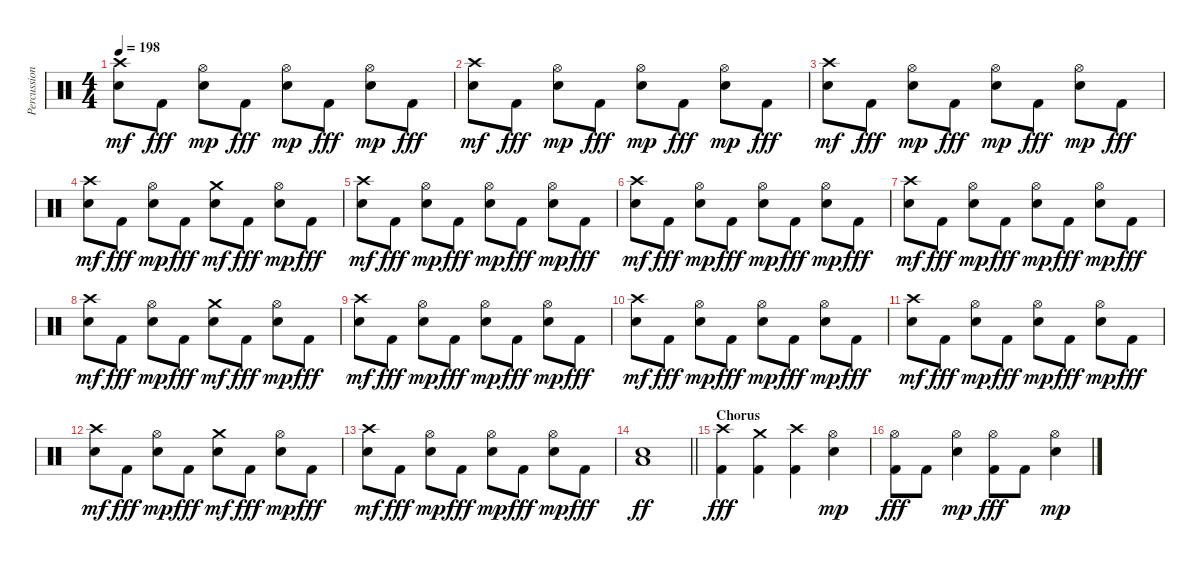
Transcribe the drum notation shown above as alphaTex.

\track ("Percussion" "Percussion") {instrument percussion}
\staff {score}
\articulation defaults
\ts (4 4)
\tempo 198
\clef neutral
\ks c
("Crash high (hit)" "Snare (hit) 2").8{dy mf} "Kick (hit) 2".8{dy fff} ("Hi-Hat (open)" "Snare (hit) 2").8{dy mp} "Kick (hit) 2".8{dy fff} ("Hi-Hat (open)" "Snare (hit) 2").8{dy mp} "Kick (hit) 2".8{dy fff} ("Hi-Hat (open)" "Snare (hit) 2").8{dy mp} "Kick (hit) 2".8{dy fff} |
("Crash high (hit)" "Snare (hit) 2").8{dy mf} "Kick (hit) 2".8{dy fff} ("Hi-Hat (open)" "Snare (hit) 2").8{dy mp} "Kick (hit) 2".8{dy fff} ("Hi-Hat (open)" "Snare (hit) 2").8{dy mp} "Kick (hit) 2".8{dy fff} ("Hi-Hat (open)" "Snare (hit) 2").8{dy mp} "Kick (hit) 2".8{dy fff} |
("Crash high (hit)" "Snare (hit) 2").8{dy mf} "Kick (hit) 2".8{dy fff} ("Hi-Hat (open)" "Snare (hit) 2").8{dy mp} "Kick (hit) 2".8{dy fff} ("Hi-Hat (open)" "Snare (hit) 2").8{dy mp} "Kick (hit) 2".8{dy fff} ("Hi-Hat (open)" "Snare (hit) 2").8{dy mp} "Kick (hit) 2".8{dy fff} |
("Crash high (hit)" "Snare (hit) 2").8{dy mf} "Kick (hit) 2".8{dy fff} ("Hi-Hat (open)" "Snare (hit) 2").8{dy mp} "Kick (hit) 2".8{dy fff} ("Crash medium (hit)" "Snare (hit) 2").8{dy mf} "Kick (hit) 2".8{dy fff} ("Hi-Hat (open)" "Snare (hit) 2").8{dy mp} "Kick (hit) 2".8{dy fff} |
("Crash high (hit)" "Snare (hit) 2").8{dy mf} "Kick (hit) 2".8{dy fff} ("Hi-Hat (open)" "Snare (hit) 2").8{dy mp} "Kick (hit) 2".8{dy fff} ("Hi-Hat (open)" "Snare (hit) 2").8{dy mp} "Kick (hit) 2".8{dy fff} ("Hi-Hat (open)" "Snare (hit) 2").8{dy mp} "Kick (hit) 2".8{dy fff} |
("Crash high (hit)" "Snare (hit) 2").8{dy mf} "Kick (hit) 2".8{dy fff} ("Hi-Hat (open)" "Snare (hit) 2").8{dy mp} "Kick (hit) 2".8{dy fff} ("Hi-Hat (open)" "Snare (hit) 2").8{dy mp} "Kick (hit) 2".8{dy fff} ("Hi-Hat (open)" "Snare (hit) 2").8{dy mp} "Kick (hit) 2".8{dy fff} |
("Crash high (hit)" "Snare (hit) 2").8{dy mf} "Kick (hit) 2".8{dy fff} ("Hi-Hat (open)" "Snare (hit) 2").8{dy mp} "Kick (hit) 2".8{dy fff} ("Hi-Hat (open)" "Snare (hit) 2").8{dy mp} "Kick (hit) 2".8{dy fff} ("Hi-Hat (open)" "Snare (hit) 2").8{dy mp} "Kick (hit) 2".8{dy fff} |
("Crash high (hit)" "Snare (hit) 2").8{dy mf} "Kick (hit) 2".8{dy fff} ("Hi-Hat (open)" "Snare (hit) 2").8{dy mp} "Kick (hit) 2".8{dy fff} ("Crash medium (hit)" "Snare (hit) 2").8{dy mf} "Kick (hit) 2".8{dy fff} ("Hi-Hat (open)" "Snare (hit) 2").8{dy mp} "Kick (hit) 2".8{dy fff} |
("Crash high (hit)" "Snare (hit) 2").8{dy mf} "Kick (hit) 2".8{dy fff} ("Hi-Hat (open)" "Snare (hit) 2").8{dy mp} "Kick (hit) 2".8{dy fff} ("Hi-Hat (open)" "Snare (hit) 2").8{dy mp} "Kick (hit) 2".8{dy fff} ("Hi-Hat (open)" "Snare (hit) 2").8{dy mp} "Kick (hit) 2".8{dy fff} |
("Crash high (hit)" "Snare (hit) 2").8{dy mf} "Kick (hit) 2".8{dy fff} ("Hi-Hat (open)" "Snare (hit) 2").8{dy mp} "Kick (hit) 2".8{dy fff} ("Hi-Hat (open)" "Snare (hit) 2").8{dy mp} "Kick (hit) 2".8{dy fff} ("Hi-Hat (open)" "Snare (hit) 2").8{dy mp} "Kick (hit) 2".8{dy fff} |
("Crash high (hit)" "Snare (hit) 2").8{dy mf} "Kick (hit) 2".8{dy fff} ("Hi-Hat (open)" "Snare (hit) 2").8{dy mp} "Kick (hit) 2".8{dy fff} ("Hi-Hat (open)" "Snare (hit) 2").8{dy mp} "Kick (hit) 2".8{dy fff} ("Hi-Hat (open)" "Snare (hit) 2").8{dy mp} "Kick (hit) 2".8{dy fff} |
("Crash high (hit)" "Snare (hit) 2").8{dy mf} "Kick (hit) 2".8{dy fff} ("Hi-Hat (open)" "Snare (hit) 2").8{dy mp} "Kick (hit) 2".8{dy fff} ("Crash medium (hit)" "Snare (hit) 2").8{dy mf} "Kick (hit) 2".8{dy fff} ("Hi-Hat (open)" "Snare (hit) 2").8{dy mp} "Kick (hit) 2".8{dy fff} |
("Crash high (hit)" "Snare (hit) 2").8{dy mf} "Kick (hit) 2".8{dy fff} ("Hi-Hat (open)" "Snare (hit) 2").8{dy mp} "Kick (hit) 2".8{dy fff} ("Hi-Hat (open)" "Snare (hit) 2").8{dy mp} "Kick (hit) 2".8{dy fff} ("Hi-Hat (open)" "Snare (hit) 2").8{dy mp} "Kick (hit) 2".8{dy fff} |
\barLineRight lightlight
("Low Floor Tom (hit)" "Snare (hit) 2").1{dy ff} |
\section ("" "Chorus")
("Crash high (hit)" "Kick (hit) 2").4{dy fff} ("Crash medium (hit)" "Kick (hit) 2").4 ("Crash high (hit)" "Kick (hit) 2").4 ("Hi-Hat (open)" "Snare (hit) 2").4{dy mp} |
("Hi-Hat (open)" "Kick (hit) 2").8{dy fff} "Kick (hit) 2".8 ("Hi-Hat (open)" "Snare (hit) 2").4{dy mp} ("Hi-Hat (open)" "Kick (hit) 2").8{dy fff} "Kick (hit) 2".8 ("Hi-Hat (open)" "Snare (hit) 2").4{dy mp}
